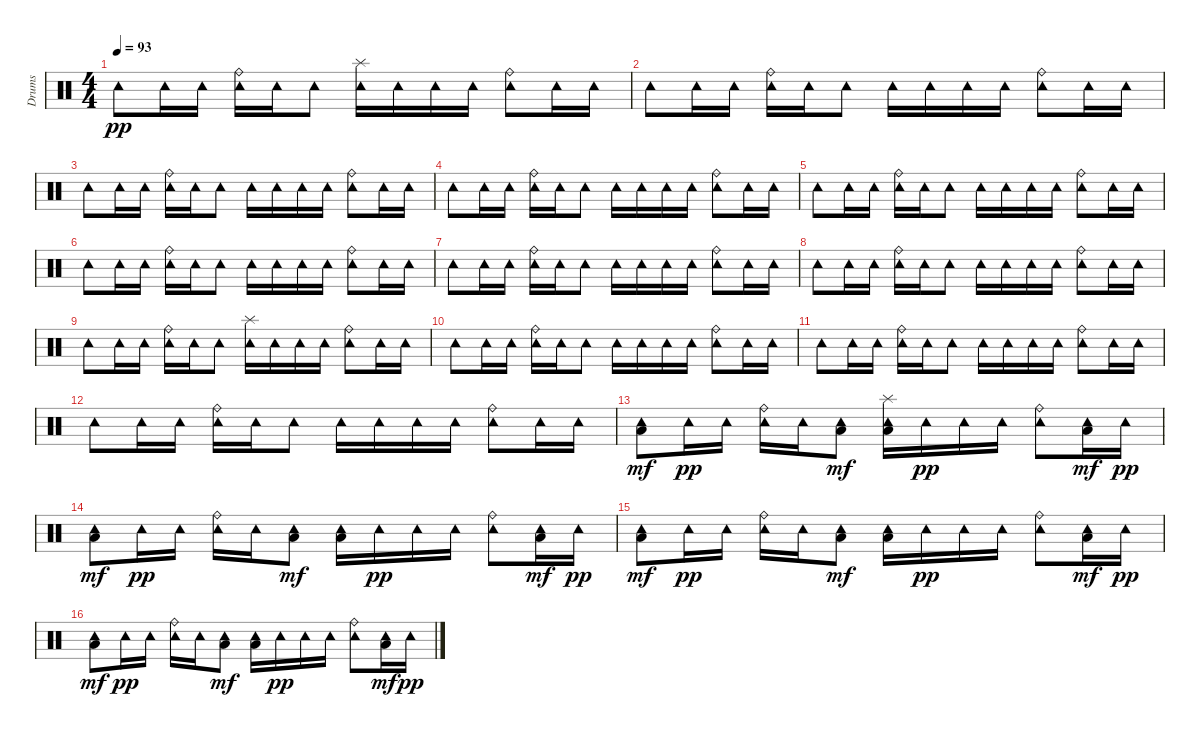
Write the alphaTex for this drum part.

\track ("Drums" "Drums") {instrument percussion}
\staff {score}
\articulation defaults
\ts (4 4)
\tempo 93
\clef neutral
\ks c "Tambourine (hit)".8{dy pp} "Tambourine (hit)".16 "Tambourine (hit)".16
("Tambourine (hit)" "Ride (bell)").16 "Tambourine (hit)".16 "Tambourine (hit)".8 ("Tambourine (hit)" "Splash (hit)").16 "Tambourine (hit)".16 "Tambourine (hit)".16 "Tambourine (hit)".16 ("Tambourine (hit)" "Ride (bell)").8 "Tambourine (hit)".16 "Tambourine (hit)".16 |
"Tambourine (hit)".8 "Tambourine (hit)".16 "Tambourine (hit)".16 ("Tambourine (hit)" "Ride (bell)").16 "Tambourine (hit)".16 "Tambourine (hit)".8 "Tambourine (hit)".16 "Tambourine (hit)".16 "Tambourine (hit)".16 "Tambourine (hit)".16 ("Tambourine (hit)" "Ride (bell)").8 "Tambourine (hit)".16 "Tambourine (hit)".16 |
"Tambourine (hit)".8 "Tambourine (hit)".16 "Tambourine (hit)".16 ("Tambourine (hit)" "Ride (bell)").16 "Tambourine (hit)".16 "Tambourine (hit)".8 "Tambourine (hit)".16 "Tambourine (hit)".16 "Tambourine (hit)".16 "Tambourine (hit)".16 ("Tambourine (hit)" "Ride (bell)").8 "Tambourine (hit)".16 "Tambourine (hit)".16 |
"Tambourine (hit)".8 "Tambourine (hit)".16 "Tambourine (hit)".16 ("Tambourine (hit)" "Ride (bell)").16 "Tambourine (hit)".16 "Tambourine (hit)".8 "Tambourine (hit)".16 "Tambourine (hit)".16 "Tambourine (hit)".16 "Tambourine (hit)".16 ("Tambourine (hit)" "Ride (bell)").8 "Tambourine (hit)".16 "Tambourine (hit)".16 |
"Tambourine (hit)".8 "Tambourine (hit)".16 "Tambourine (hit)".16 ("Tambourine (hit)" "Ride (bell)").16 "Tambourine (hit)".16 "Tambourine (hit)".8 "Tambourine (hit)".16 "Tambourine (hit)".16 "Tambourine (hit)".16 "Tambourine (hit)".16 ("Tambourine (hit)" "Ride (bell)").8 "Tambourine (hit)".16 "Tambourine (hit)".16 |
"Tambourine (hit)".8 "Tambourine (hit)".16 "Tambourine (hit)".16 ("Tambourine (hit)" "Ride (bell)").16 "Tambourine (hit)".16 "Tambourine (hit)".8 "Tambourine (hit)".16 "Tambourine (hit)".16 "Tambourine (hit)".16 "Tambourine (hit)".16 ("Tambourine (hit)" "Ride (bell)").8 "Tambourine (hit)".16 "Tambourine (hit)".16 |
"Tambourine (hit)".8 "Tambourine (hit)".16 "Tambourine (hit)".16 ("Tambourine (hit)" "Ride (bell)").16 "Tambourine (hit)".16 "Tambourine (hit)".8 "Tambourine (hit)".16 "Tambourine (hit)".16 "Tambourine (hit)".16 "Tambourine (hit)".16 ("Tambourine (hit)" "Ride (bell)").8 "Tambourine (hit)".16 "Tambourine (hit)".16 |
"Tambourine (hit)".8 "Tambourine (hit)".16 "Tambourine (hit)".16 ("Tambourine (hit)" "Ride (bell)").16 "Tambourine (hit)".16 "Tambourine (hit)".8 "Tambourine (hit)".16 "Tambourine (hit)".16 "Tambourine (hit)".16 "Tambourine (hit)".16 ("Tambourine (hit)" "Ride (bell)").8 "Tambourine (hit)".16 "Tambourine (hit)".16 |
"Tambourine (hit)".8 "Tambourine (hit)".16 "Tambourine (hit)".16 ("Tambourine (hit)" "Ride (bell)").16 "Tambourine (hit)".16 "Tambourine (hit)".8 ("Tambourine (hit)" "Splash (hit)").16 "Tambourine (hit)".16 "Tambourine (hit)".16 "Tambourine (hit)".16 ("Tambourine (hit)" "Ride (bell)").8 "Tambourine (hit)".16 "Tambourine (hit)".16 |
"Tambourine (hit)".8 "Tambourine (hit)".16 "Tambourine (hit)".16 ("Tambourine (hit)" "Ride (bell)").16 "Tambourine (hit)".16 "Tambourine (hit)".8 "Tambourine (hit)".16 "Tambourine (hit)".16 "Tambourine (hit)".16 "Tambourine (hit)".16 ("Tambourine (hit)" "Ride (bell)").8 "Tambourine (hit)".16 "Tambourine (hit)".16 |
"Tambourine (hit)".8 "Tambourine (hit)".16 "Tambourine (hit)".16 ("Tambourine (hit)" "Ride (bell)").16 "Tambourine (hit)".16 "Tambourine (hit)".8 "Tambourine (hit)".16 "Tambourine (hit)".16 "Tambourine (hit)".16 "Tambourine (hit)".16 ("Tambourine (hit)" "Ride (bell)").8 "Tambourine (hit)".16 "Tambourine (hit)".16 |
"Tambourine (hit)".8 "Tambourine (hit)".16 "Tambourine (hit)".16 ("Tambourine (hit)" "Ride (bell)").16 "Tambourine (hit)".16 "Tambourine (hit)".8 "Tambourine (hit)".16 "Tambourine (hit)".16 "Tambourine (hit)".16 "Tambourine (hit)".16 ("Tambourine (hit)" "Ride (bell)").8 "Tambourine (hit)".16 "Tambourine (hit)".16 |
("Tambourine (hit)" "Low Floor Tom (hit)").8{dy mf} "Tambourine (hit)".16{dy pp} "Tambourine (hit)".16 ("Tambourine (hit)" "Ride (bell)").16 "Tambourine (hit)".16 ("Tambourine (hit)" "Low Floor Tom (hit)").8{dy mf} ("Tambourine (hit)" "Splash (hit)" "Low Floor Tom (hit)").16 "Tambourine (hit)".16{dy pp} "Tambourine (hit)".16 "Tambourine (hit)".16 ("Tambourine (hit)" "Ride (bell)").8 ("Tambourine (hit)" "Low Floor Tom (hit)").16{dy mf} "Tambourine (hit)".16{dy pp} |
("Tambourine (hit)" "Low Floor Tom (hit)").8{dy mf} "Tambourine (hit)".16{dy pp} "Tambourine (hit)".16 ("Tambourine (hit)" "Ride (bell)").16 "Tambourine (hit)".16 ("Tambourine (hit)" "Low Floor Tom (hit)").8{dy mf} ("Tambourine (hit)" "Low Floor Tom (hit)").16 "Tambourine (hit)".16{dy pp} "Tambourine (hit)".16 "Tambourine (hit)".16 ("Tambourine (hit)" "Ride (bell)").8 ("Tambourine (hit)" "Low Floor Tom (hit)").16{dy mf} "Tambourine (hit)".16{dy pp} |
("Tambourine (hit)" "Low Floor Tom (hit)").8{dy mf} "Tambourine (hit)".16{dy pp} "Tambourine (hit)".16 ("Tambourine (hit)" "Ride (bell)").16 "Tambourine (hit)".16 ("Tambourine (hit)" "Low Floor Tom (hit)").8{dy mf} ("Tambourine (hit)" "Low Floor Tom (hit)").16 "Tambourine (hit)".16{dy pp} "Tambourine (hit)".16 "Tambourine (hit)".16 ("Tambourine (hit)" "Ride (bell)").8 ("Tambourine (hit)" "Low Floor Tom (hit)").16{dy mf} "Tambourine (hit)".16{dy pp} |
("Tambourine (hit)" "Low Floor Tom (hit)").8{dy mf} "Tambourine (hit)".16{dy pp} "Tambourine (hit)".16 ("Tambourine (hit)" "Ride (bell)").16 "Tambourine (hit)".16 ("Tambourine (hit)" "Low Floor Tom (hit)").8{dy mf} ("Tambourine (hit)" "Low Floor Tom (hit)").16 "Tambourine (hit)".16{dy pp} "Tambourine (hit)".16 "Tambourine (hit)".16 ("Tambourine (hit)" "Ride (bell)").8 ("Tambourine (hit)" "Low Floor Tom (hit)").16{dy mf} "Tambourine (hit)".16{dy pp}
